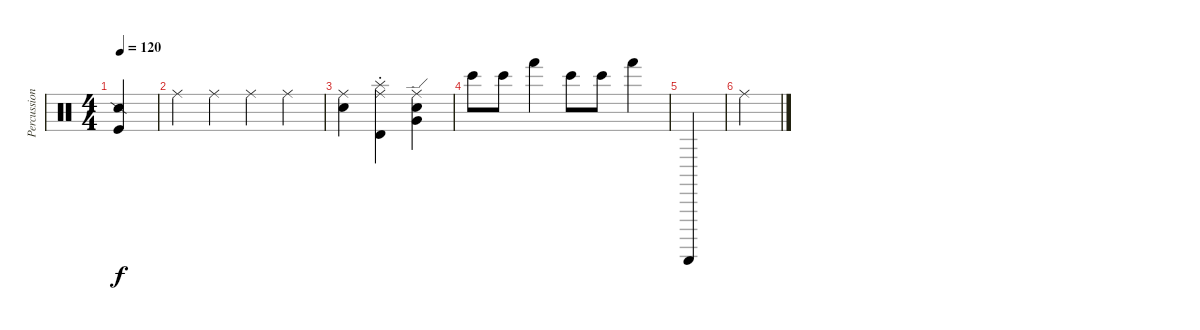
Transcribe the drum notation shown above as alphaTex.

\track ("Percussion" "Percussion") {instrument percussion}
\staff {score}
\articulation defaults
\ts (4 4)
\tempo 120
\clef neutral
\ks c
("Snare (side stick) 2" "Kick (hit)").4{dy f} |
"Ride (middle)".4 "Ride (middle)".4 "Ride (middle)".4 "Ride (middle)".4 |
("Ride (middle)" "Snare (hit)").4 ("Ride (middle)" "Timbale high (hit)" "Splash (choke)").4 ("Snare (hit)" "Very Low Tom (hit)" "Ride (edge)").4 |
"Bongo High (hit)".8 "Bongo High (hit)".8 "Hand (hit)".4 "Bongo High (hit)".8 "Bongo High (hit)".8 "Hand (hit)".4 |
"Guiro (scrap-return)".4 |
"Ride (middle)".4
